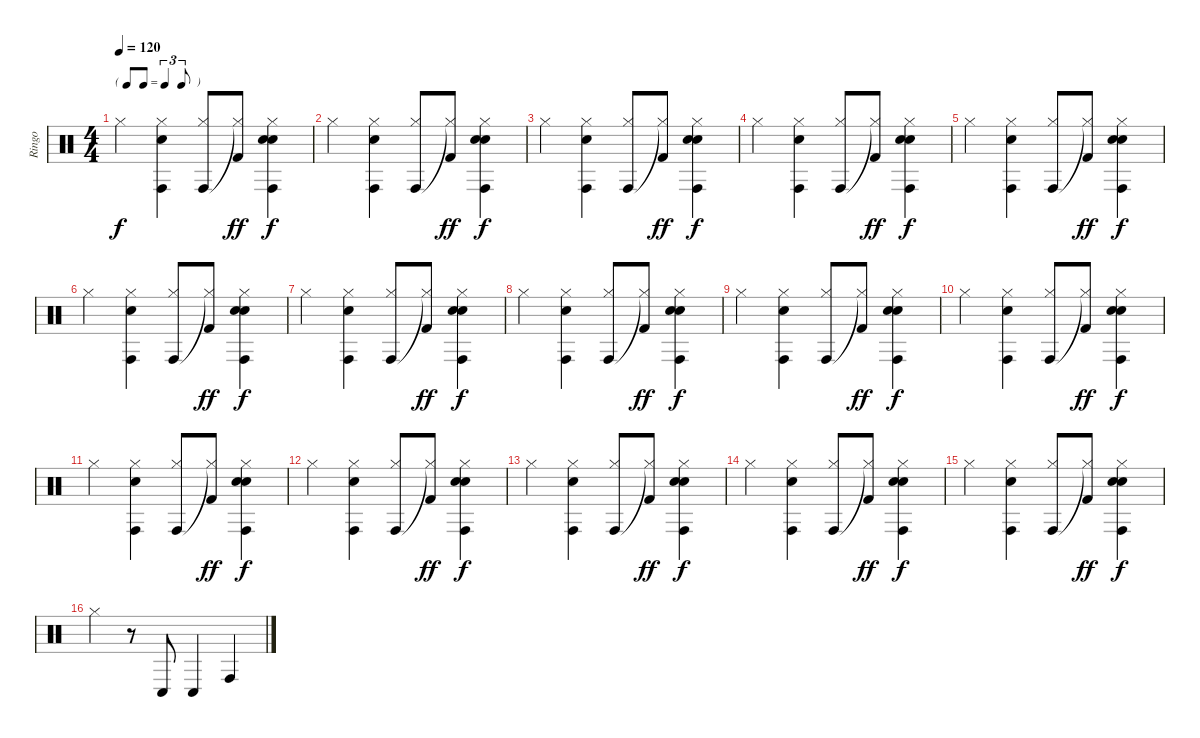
\track ("Ringo" "Ringo") {instrument percussion}
\staff {score}
\articulation defaults
\ts (4 4)
\tf triplet8th
\tempo 120
\clef neutral
\ks c "Hi-Hat (closed)".4{dy f}
("Conga high (hit)" "Hi-Hat (closed)" "Snare (hit) 2").4 ("Conga high (hit)" "Hi-Hat (closed)").8 ("Hi-Hat (closed)"{t} "Kick (hit) 2").8{dy ff} ("Conga high (hit)" "Hi-Hat (closed)" "Snare (hit) 2" "Hand Clap (hit)").4{dy f} |
"Hi-Hat (closed)".4 ("Conga high (hit)" "Hi-Hat (closed)" "Snare (hit) 2").4 ("Conga high (hit)" "Hi-Hat (closed)").8 ("Hi-Hat (closed)"{t} "Kick (hit) 2").8{dy ff} ("Conga high (hit)" "Hi-Hat (closed)" "Snare (hit) 2" "Hand Clap (hit)").4{dy f} |
"Hi-Hat (closed)".4 ("Conga high (hit)" "Hi-Hat (closed)" "Snare (hit) 2").4 ("Conga high (hit)" "Hi-Hat (closed)").8 ("Hi-Hat (closed)"{t} "Kick (hit) 2").8{dy ff} ("Conga high (hit)" "Hi-Hat (closed)" "Snare (hit) 2" "Hand Clap (hit)").4{dy f} |
"Hi-Hat (closed)".4 ("Conga high (hit)" "Hi-Hat (closed)" "Snare (hit) 2").4 ("Conga high (hit)" "Hi-Hat (closed)").8 ("Hi-Hat (closed)"{t} "Kick (hit) 2").8{dy ff} ("Conga high (hit)" "Hi-Hat (closed)" "Snare (hit) 2" "Hand Clap (hit)").4{dy f} |
"Hi-Hat (closed)".4 ("Conga high (hit)" "Hi-Hat (closed)" "Snare (hit) 2").4 ("Conga high (hit)" "Hi-Hat (closed)").8 ("Hi-Hat (closed)"{t} "Kick (hit) 2").8{dy ff} ("Conga high (hit)" "Hi-Hat (closed)" "Snare (hit) 2" "Hand Clap (hit)").4{dy f} |
"Hi-Hat (closed)".4 ("Conga high (hit)" "Hi-Hat (closed)" "Snare (hit) 2").4 ("Conga high (hit)" "Hi-Hat (closed)").8 ("Hi-Hat (closed)"{t} "Kick (hit) 2").8{dy ff} ("Conga high (hit)" "Hi-Hat (closed)" "Snare (hit) 2" "Hand Clap (hit)").4{dy f} |
"Hi-Hat (closed)".4 ("Conga high (hit)" "Hi-Hat (closed)" "Snare (hit) 2").4 ("Conga high (hit)" "Hi-Hat (closed)").8 ("Hi-Hat (closed)"{t} "Kick (hit) 2").8{dy ff} ("Conga high (hit)" "Hi-Hat (closed)" "Snare (hit) 2" "Hand Clap (hit)").4{dy f} |
"Hi-Hat (closed)".4 ("Conga high (hit)" "Hi-Hat (closed)" "Snare (hit) 2").4 ("Conga high (hit)" "Hi-Hat (closed)").8 ("Hi-Hat (closed)"{t} "Kick (hit) 2").8{dy ff} ("Conga high (hit)" "Hi-Hat (closed)" "Snare (hit) 2" "Hand Clap (hit)").4{dy f} |
"Hi-Hat (closed)".4 ("Conga high (hit)" "Hi-Hat (closed)" "Snare (hit) 2").4 ("Conga high (hit)" "Hi-Hat (closed)").8 ("Hi-Hat (closed)"{t} "Kick (hit) 2").8{dy ff} ("Conga high (hit)" "Hi-Hat (closed)" "Snare (hit) 2" "Hand Clap (hit)").4{dy f} |
"Hi-Hat (closed)".4 ("Conga high (hit)" "Hi-Hat (closed)" "Snare (hit) 2").4 ("Conga high (hit)" "Hi-Hat (closed)").8 ("Hi-Hat (closed)"{t} "Kick (hit) 2").8{dy ff} ("Conga high (hit)" "Hi-Hat (closed)" "Snare (hit) 2" "Hand Clap (hit)").4{dy f} |
"Hi-Hat (closed)".4 ("Conga high (hit)" "Hi-Hat (closed)" "Snare (hit) 2").4 ("Conga high (hit)" "Hi-Hat (closed)").8 ("Hi-Hat (closed)"{t} "Kick (hit) 2").8{dy ff} ("Conga high (hit)" "Hi-Hat (closed)" "Snare (hit) 2" "Hand Clap (hit)").4{dy f} |
"Hi-Hat (closed)".4 ("Conga high (hit)" "Hi-Hat (closed)" "Snare (hit) 2").4 ("Conga high (hit)" "Hi-Hat (closed)").8 ("Hi-Hat (closed)"{t} "Kick (hit) 2").8{dy ff} ("Conga high (hit)" "Hi-Hat (closed)" "Snare (hit) 2" "Hand Clap (hit)").4{dy f} |
"Hi-Hat (closed)".4 ("Conga high (hit)" "Hi-Hat (closed)" "Snare (hit) 2").4 ("Conga high (hit)" "Hi-Hat (closed)").8 ("Hi-Hat (closed)"{t} "Kick (hit) 2").8{dy ff} ("Conga high (hit)" "Hi-Hat (closed)" "Snare (hit) 2" "Hand Clap (hit)").4{dy f} |
"Hi-Hat (closed)".4 ("Conga high (hit)" "Hi-Hat (closed)" "Snare (hit) 2").4 ("Conga high (hit)" "Hi-Hat (closed)").8 ("Hi-Hat (closed)"{t} "Kick (hit) 2").8{dy ff} ("Conga high (hit)" "Hi-Hat (closed)" "Snare (hit) 2" "Hand Clap (hit)").4{dy f} |
"Hi-Hat (closed)".4 ("Conga high (hit)" "Hi-Hat (closed)" "Snare (hit) 2").4 ("Conga high (hit)" "Hi-Hat (closed)").8 ("Hi-Hat (closed)"{t} "Kick (hit) 2").8{dy ff} ("Conga high (hit)" "Hi-Hat (closed)" "Snare (hit) 2" "Hand Clap (hit)").4{dy f} |
"Hi-Hat (closed)".4 r.8 "Conga low (hit)".8 "Conga low (hit)".4 "Conga high (hit)".4
